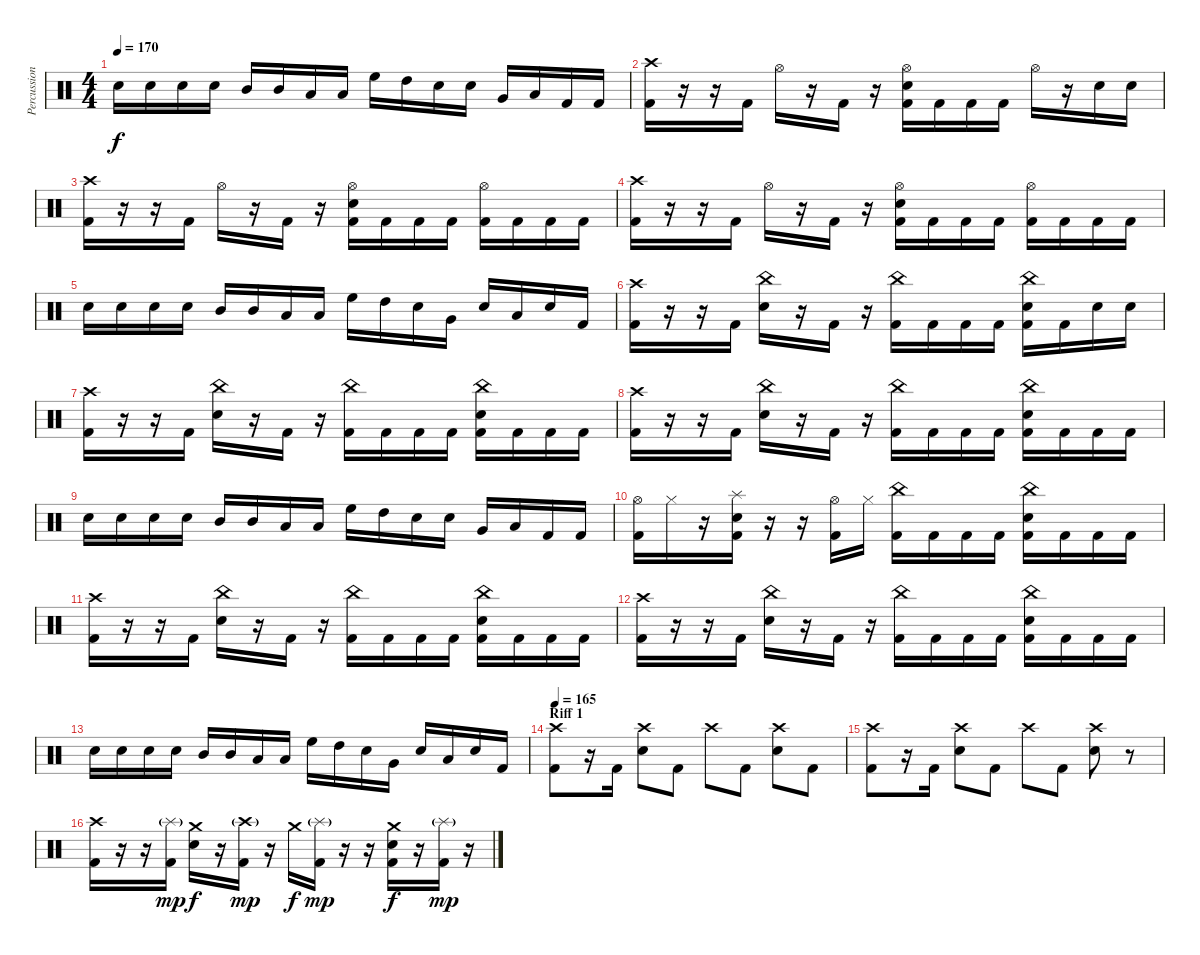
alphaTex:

\track ("Percussion" "Percussion") {instrument percussion}
\staff {score}
\articulation defaults
\ts (4 4)
\tempo 170
\clef neutral
\ks c "Electric Snare (hit)".16{dy f} "Electric Snare (hit)".16 "Electric Snare (hit)".16 "Electric Snare (hit)".16 "Mid Tom (hit)".16 "Mid Tom (hit)".16 "Low Tom (hit)".16 "Low Tom (hit)".16 "High Floor Tom (hit)".16 "High Tom (hit)".16 "Electric Snare (hit)".16 "Electric Snare (hit)".16 "Very Low Tom (hit)".16 "Low Floor Tom (hit)".16 "Kick (hit) 2".16 "Kick (hit) 2".16
|
("Crash high (hit)" "Kick (hit) 2").16 r.16 r.16 "Kick (hit) 2".16 "Hi-Hat (open)".16 r.16 "Kick (hit) 2".16 r.16 ("Hi-Hat (open)" "Electric Snare (hit)" "Kick (hit) 2").16 "Kick (hit) 2".16 "Kick (hit) 2".16 "Kick (hit) 2".16 "Hi-Hat (open)".16 r.16 "Electric Snare (hit)".16 "Electric Snare (hit)".16 |
("Crash high (hit)" "Kick (hit) 2").16 r.16 r.16 "Kick (hit) 2".16 "Hi-Hat (open)".16 r.16 "Kick (hit) 2".16 r.16 ("Hi-Hat (open)" "Electric Snare (hit)" "Kick (hit) 2").16 "Kick (hit) 2".16 "Kick (hit) 2".16 "Kick (hit) 2".16 ("Hi-Hat (open)" "Kick (hit) 2").16 "Kick (hit) 2".16 "Kick (hit) 2".16 "Kick (hit) 2".16 |
("Crash high (hit)" "Kick (hit) 2").16 r.16 r.16 "Kick (hit) 2".16 "Hi-Hat (open)".16 r.16 "Kick (hit) 2".16 r.16 ("Hi-Hat (open)" "Electric Snare (hit)" "Kick (hit) 2").16 "Kick (hit) 2".16 "Kick (hit) 2".16 "Kick (hit) 2".16 ("Hi-Hat (open)" "Kick (hit) 2").16 "Kick (hit) 2".16 "Kick (hit) 2".16 "Kick (hit) 2".16 |
"Electric Snare (hit)".16 "Electric Snare (hit)".16 "Electric Snare (hit)".16 "Electric Snare (hit)".16 "Mid Tom (hit)".16 "Mid Tom (hit)".16 "Low Tom (hit)".16 "Low Tom (hit)".16 "High Floor Tom (hit)".16 "High Tom (hit)".16 "Electric Snare (hit)".16 "Very Low Tom (hit)".16 "Electric Snare (hit)".16 "Low Floor Tom (hit)".16 "Electric Snare (hit)".16 "Kick (hit) 2".16 |
("Crash high (hit)" "Kick (hit) 2").16 r.16 r.16 "Kick (hit) 2".16 ("China (hit)" "Electric Snare (hit)").16 r.16 "Kick (hit) 2".16 r.16 ("China (hit)" "Kick (hit) 2").16 "Kick (hit) 2".16 "Kick (hit) 2".16 "Kick (hit) 2".16 ("China (hit)" "Electric Snare (hit)" "Kick (hit) 2").16 "Kick (hit) 2".16 "Electric Snare (hit)".16 "Electric Snare (hit)".16 |
("Crash high (hit)" "Kick (hit) 2").16 r.16 r.16 "Kick (hit) 2".16 ("China (hit)" "Electric Snare (hit)").16 r.16 "Kick (hit) 2".16 r.16 ("China (hit)" "Kick (hit) 2").16 "Kick (hit) 2".16 "Kick (hit) 2".16 "Kick (hit) 2".16 ("China (hit)" "Electric Snare (hit)" "Kick (hit) 2").16 "Kick (hit) 2".16 "Kick (hit) 2".16 "Kick (hit) 2".16 |
("Crash high (hit)" "Kick (hit) 2").16 r.16 r.16 "Kick (hit) 2".16 ("China (hit)" "Electric Snare (hit)").16 r.16 "Kick (hit) 2".16 r.16 ("China (hit)" "Kick (hit) 2").16 "Kick (hit) 2".16 "Kick (hit) 2".16 "Kick (hit) 2".16 ("China (hit)" "Electric Snare (hit)" "Kick (hit) 2").16 "Kick (hit) 2".16 "Kick (hit) 2".16 "Kick (hit) 2".16 |
"Electric Snare (hit)".16 "Electric Snare (hit)".16 "Electric Snare (hit)".16 "Electric Snare (hit)".16 "Mid Tom (hit)".16 "Mid Tom (hit)".16 "Low Tom (hit)".16 "Low Tom (hit)".16 "High Floor Tom (hit)".16 "High Tom (hit)".16 "Electric Snare (hit)".16 "Electric Snare (hit)".16 "Very Low Tom (hit)".16 "Low Floor Tom (hit)".16 "Kick (hit) 2".16 "Kick (hit) 2".16 |
("Hi-Hat (open)" "Kick (hit) 2").16 "Hi-Hat (closed)".16 r.16 ("Splash (hit)" "Electric Snare (hit)" "Kick (hit) 2").16 r.16 r.16 ("Hi-Hat (open)" "Kick (hit) 2").16 "Hi-Hat (closed)".16 ("China (hit)" "Kick (hit) 2").16 "Kick (hit) 2".16 "Kick (hit) 2".16 "Kick (hit) 2".16 ("China (hit)" "Electric Snare (hit)" "Kick (hit) 2").16 "Kick (hit) 2".16 "Kick (hit) 2".16 "Kick (hit) 2".16 |
("Crash high (hit)" "Kick (hit) 2").16 r.16 r.16 "Kick (hit) 2".16 ("China (hit)" "Electric Snare (hit)").16 r.16 "Kick (hit) 2".16 r.16 ("China (hit)" "Kick (hit) 2").16 "Kick (hit) 2".16 "Kick (hit) 2".16 "Kick (hit) 2".16 ("China (hit)" "Electric Snare (hit)" "Kick (hit) 2").16 "Kick (hit) 2".16 "Kick (hit) 2".16 "Kick (hit) 2".16 |
("Crash high (hit)" "Kick (hit) 2").16 r.16 r.16 "Kick (hit) 2".16 ("China (hit)" "Electric Snare (hit)").16 r.16 "Kick (hit) 2".16 r.16 ("China (hit)" "Kick (hit) 2").16 "Kick (hit) 2".16 "Kick (hit) 2".16 "Kick (hit) 2".16 ("China (hit)" "Electric Snare (hit)" "Kick (hit) 2").16 "Kick (hit) 2".16 "Kick (hit) 2".16 "Kick (hit) 2".16 |
"Electric Snare (hit)".16 "Electric Snare (hit)".16 "Electric Snare (hit)".16 "Electric Snare (hit)".16 "Mid Tom (hit)".16 "Mid Tom (hit)".16 "Low Tom (hit)".16 "Low Tom (hit)".16 "High Floor Tom (hit)".16 "High Tom (hit)".16 "Electric Snare (hit)".16 "Very Low Tom (hit)".16 "Electric Snare (hit)".16 "Low Floor Tom (hit)".16 "Electric Snare (hit)".16 "Kick (hit) 2".16 |
\section ("" "Riff 1")
\tempo 165
("Crash high (hit)" "Kick (hit) 2").8 r.16 "Kick (hit) 2".16 ("Crash high (hit)" "Electric Snare (hit)").8 "Kick (hit) 2".8 "Crash high (hit)".8 "Kick (hit) 2".8 ("Crash high (hit)" "Electric Snare (hit)").8 "Kick (hit) 2".8 |
("Crash high (hit)" "Kick (hit) 2").8 r.16 "Kick (hit) 2".16 ("Crash high (hit)" "Electric Snare (hit)").8 "Kick (hit) 2".8 "Crash high (hit)".8 "Kick (hit) 2".8 ("Crash high (hit)" "Electric Snare (hit)").8 r.8 |
("Crash high (hit)" "Kick (hit) 2").16 r.16 r.16 ("Splash (hit)"{g} "Kick (hit) 2").16{dy mp} ("Crash medium (hit)" "Electric Snare (hit)").16{dy f} r.16 ("Crash high (hit)"{g} "Kick (hit) 2").16{dy mp} r.16 "Crash medium (hit)".16{dy f} ("Splash (hit)"{g} "Kick (hit) 2").16{dy mp} r.16 r.16 ("Crash medium (hit)" "Electric Snare (hit)" "Kick (hit) 2").16{dy f} r.16 ("Splash (hit)"{g} "Kick (hit) 2").16{dy mp} r.16
